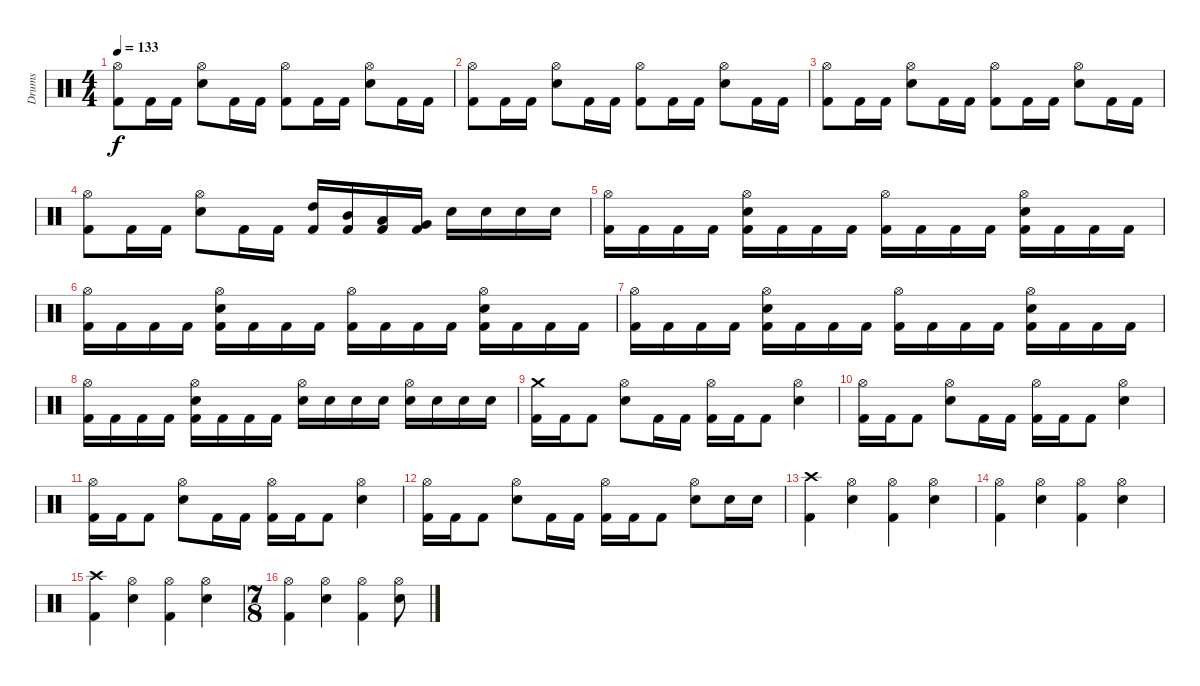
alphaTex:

\track ("Drums" "Drums") {instrument percussion}
\staff {score}
\articulation defaults
\ts (4 4)
\tempo 133
\clef neutral
\ks aminor
("Hi-Hat (open)" "Kick (hit) 2").8{dy f} "Kick (hit) 2".16 "Kick (hit) 2".16 ("Hi-Hat (open)" "Electric Snare (hit)").8 "Kick (hit) 2".16 "Kick (hit) 2".16 ("Hi-Hat (open)" "Kick (hit) 2").8 "Kick (hit) 2".16 "Kick (hit) 2".16 ("Hi-Hat (open)" "Electric Snare (hit)").8 "Kick (hit) 2".16 "Kick (hit) 2".16 |
("Hi-Hat (open)" "Kick (hit) 2").8 "Kick (hit) 2".16 "Kick (hit) 2".16 ("Hi-Hat (open)" "Electric Snare (hit)").8 "Kick (hit) 2".16 "Kick (hit) 2".16 ("Hi-Hat (open)" "Kick (hit) 2").8 "Kick (hit) 2".16 "Kick (hit) 2".16 ("Hi-Hat (open)" "Electric Snare (hit)").8 "Kick (hit) 2".16 "Kick (hit) 2".16 |
("Hi-Hat (open)" "Kick (hit) 2").8 "Kick (hit) 2".16 "Kick (hit) 2".16 ("Hi-Hat (open)" "Electric Snare (hit)").8 "Kick (hit) 2".16 "Kick (hit) 2".16 ("Hi-Hat (open)" "Kick (hit) 2").8 "Kick (hit) 2".16 "Kick (hit) 2".16 ("Hi-Hat (open)" "Electric Snare (hit)").8 "Kick (hit) 2".16 "Kick (hit) 2".16 |
("Hi-Hat (open)" "Kick (hit) 2").8 "Kick (hit) 2".16 "Kick (hit) 2".16 ("Hi-Hat (open)" "Electric Snare (hit)").8 "Kick (hit) 2".16 "Kick (hit) 2".16 ("High Tom (hit)" "Kick (hit) 2").16 ("Mid Tom (hit)" "Kick (hit) 2").16 ("Low Tom (hit)" "Kick (hit) 2").16 ("Very Low Tom (hit)" "Kick (hit) 2").16 "Electric Snare (hit)".16 "Electric Snare (hit)".16 "Electric Snare (hit)".16 "Electric Snare (hit)".16 |
("Hi-Hat (open)" "Kick (hit) 2").16 "Kick (hit) 2".16 "Kick (hit) 2".16 "Kick (hit) 2".16 ("Hi-Hat (open)" "Electric Snare (hit)" "Kick (hit) 2").16 "Kick (hit) 2".16 "Kick (hit) 2".16 "Kick (hit) 2".16 ("Hi-Hat (open)" "Kick (hit) 2").16 "Kick (hit) 2".16 "Kick (hit) 2".16 "Kick (hit) 2".16 ("Hi-Hat (open)" "Electric Snare (hit)" "Kick (hit) 2").16 "Kick (hit) 2".16 "Kick (hit) 2".16 "Kick (hit) 2".16 |
("Hi-Hat (open)" "Kick (hit) 2").16 "Kick (hit) 2".16 "Kick (hit) 2".16 "Kick (hit) 2".16 ("Hi-Hat (open)" "Electric Snare (hit)" "Kick (hit) 2").16 "Kick (hit) 2".16 "Kick (hit) 2".16 "Kick (hit) 2".16 ("Hi-Hat (open)" "Kick (hit) 2").16 "Kick (hit) 2".16 "Kick (hit) 2".16 "Kick (hit) 2".16 ("Hi-Hat (open)" "Electric Snare (hit)" "Kick (hit) 2").16 "Kick (hit) 2".16 "Kick (hit) 2".16 "Kick (hit) 2".16 |
("Hi-Hat (open)" "Kick (hit) 2").16 "Kick (hit) 2".16 "Kick (hit) 2".16 "Kick (hit) 2".16 ("Hi-Hat (open)" "Electric Snare (hit)" "Kick (hit) 2").16 "Kick (hit) 2".16 "Kick (hit) 2".16 "Kick (hit) 2".16 ("Hi-Hat (open)" "Kick (hit) 2").16 "Kick (hit) 2".16 "Kick (hit) 2".16 "Kick (hit) 2".16 ("Hi-Hat (open)" "Electric Snare (hit)" "Kick (hit) 2").16 "Kick (hit) 2".16 "Kick (hit) 2".16 "Kick (hit) 2".16 |
("Hi-Hat (open)" "Kick (hit) 2").16 "Kick (hit) 2".16 "Kick (hit) 2".16 "Kick (hit) 2".16 ("Hi-Hat (open)" "Electric Snare (hit)" "Kick (hit) 2").16 "Kick (hit) 2".16 "Kick (hit) 2".16 "Kick (hit) 2".16 ("Hi-Hat (open)" "Electric Snare (hit)").16 "Electric Snare (hit)".16 "Electric Snare (hit)".16 "Electric Snare (hit)".16 ("Hi-Hat (open)" "Electric Snare (hit)").16 "Electric Snare (hit)".16 "Electric Snare (hit)".16 "Electric Snare (hit)".16 |
("Crash medium (hit)" "Kick (hit) 2").16 "Kick (hit) 2".16 "Kick (hit) 2".8 ("Hi-Hat (open)" "Electric Snare (hit)").8 "Kick (hit) 2".16 "Kick (hit) 2".16 ("Hi-Hat (open)" "Kick (hit) 2").16 "Kick (hit) 2".16 "Kick (hit) 2".8 ("Hi-Hat (open)" "Electric Snare (hit)").4 |
("Hi-Hat (open)" "Kick (hit) 2").16 "Kick (hit) 2".16 "Kick (hit) 2".8 ("Hi-Hat (open)" "Electric Snare (hit)").8 "Kick (hit) 2".16 "Kick (hit) 2".16 ("Hi-Hat (open)" "Kick (hit) 2").16 "Kick (hit) 2".16 "Kick (hit) 2".8 ("Hi-Hat (open)" "Electric Snare (hit)").4 |
("Hi-Hat (open)" "Kick (hit) 2").16 "Kick (hit) 2".16 "Kick (hit) 2".8 ("Hi-Hat (open)" "Electric Snare (hit)").8 "Kick (hit) 2".16 "Kick (hit) 2".16 ("Hi-Hat (open)" "Kick (hit) 2").16 "Kick (hit) 2".16 "Kick (hit) 2".8 ("Hi-Hat (open)" "Electric Snare (hit)").4 |
("Hi-Hat (open)" "Kick (hit) 2").16 "Kick (hit) 2".16 "Kick (hit) 2".8 ("Hi-Hat (open)" "Electric Snare (hit)").8 "Kick (hit) 2".16 "Kick (hit) 2".16 ("Hi-Hat (open)" "Kick (hit) 2").16 "Kick (hit) 2".16 "Kick (hit) 2".8 ("Hi-Hat (open)" "Electric Snare (hit)").8 "Electric Snare (hit)".16 "Electric Snare (hit)".16 |
("Crash high (hit)" "Kick (hit) 2").4 ("Hi-Hat (open)" "Electric Snare (hit)").4 ("Hi-Hat (open)" "Kick (hit) 2").4 ("Hi-Hat (open)" "Electric Snare (hit)").4 |
("Hi-Hat (open)" "Kick (hit) 2").4 ("Hi-Hat (open)" "Electric Snare (hit)").4 ("Hi-Hat (open)" "Kick (hit) 2").4 ("Hi-Hat (open)" "Electric Snare (hit)").4 |
("Crash high (hit)" "Kick (hit) 2").4 ("Hi-Hat (open)" "Electric Snare (hit)").4 ("Hi-Hat (open)" "Kick (hit) 2").4 ("Hi-Hat (open)" "Electric Snare (hit)").4 |
\ts (7 8)
("Hi-Hat (open)" "Kick (hit) 2").4 ("Hi-Hat (open)" "Electric Snare (hit)").4 ("Hi-Hat (open)" "Kick (hit) 2").4 ("Hi-Hat (open)" "Electric Snare (hit)").8
